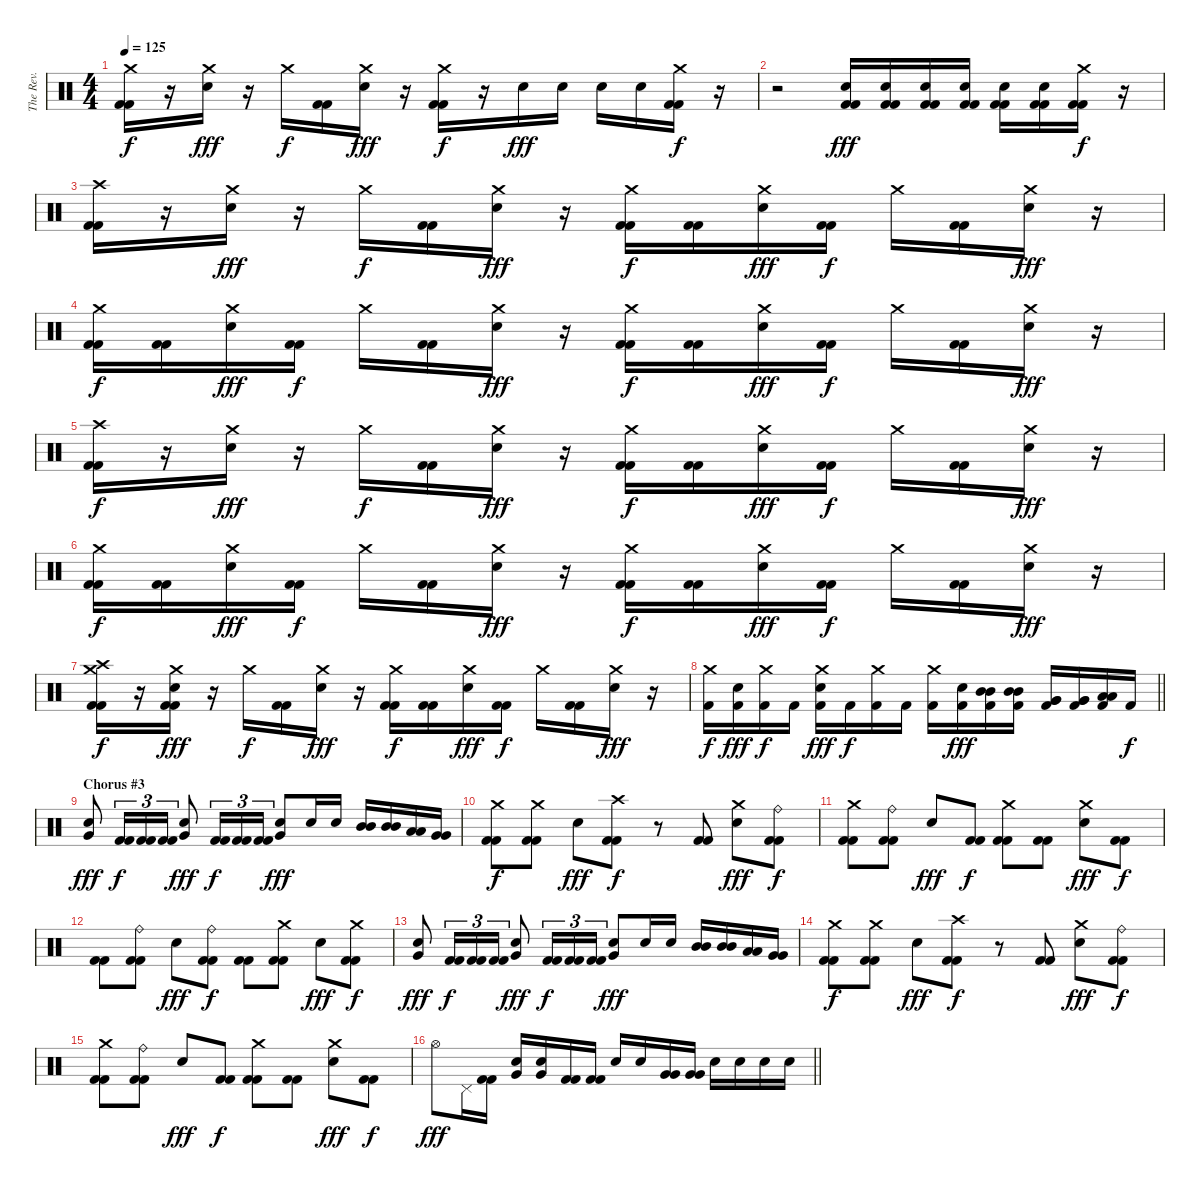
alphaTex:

\track ("The Rev." "The Rev.") {instrument percussion}
\staff {score}
\articulation defaults
\ts (4 4)
\tempo 125
\clef neutral
\ks c
("Crash medium (hit)" "Kick (hit) 2" "Kick (hit) 2").16{dy f} r.16 ("Crash medium (hit)" "Electric Snare (hit)").16{dy fff} r.16 "Crash medium (hit)".16{dy f} ("Kick (hit) 2" "Kick (hit) 2").16 ("Crash medium (hit)" "Electric Snare (hit)").16{dy fff} r.16 ("Crash medium (hit)" "Kick (hit) 2" "Kick (hit) 2").16{dy f} r.16 "Electric Snare (hit)".16{dy fff} "Electric Snare (hit)".16 "Electric Snare (hit)".16 "Electric Snare (hit)".16 ("Crash medium (hit)" "Kick (hit) 2" "Kick (hit) 2").16{dy f} r.16 |
r.2 ("Electric Snare (hit)" "Kick (hit) 2" "Kick (hit) 2").16{dy fff} ("Electric Snare (hit)" "Kick (hit) 2" "Kick (hit) 2").16 ("Electric Snare (hit)" "Kick (hit) 2" "Kick (hit) 2").16 ("Electric Snare (hit)" "Kick (hit) 2" "Kick (hit) 2").16 ("Electric Snare (hit)" "Kick (hit) 2" "Kick (hit) 2").16 ("Electric Snare (hit)" "Kick (hit) 2" "Kick (hit) 2").16 ("Crash medium (hit)" "Kick (hit) 2" "Kick (hit) 2").16{dy f} r.16 |
("Crash high (hit)" "Kick (hit) 2" "Kick (hit) 2").16 r.16 ("Crash medium (hit)" "Electric Snare (hit)").16{dy fff} r.16 "Crash medium (hit)".16{dy f} ("Kick (hit) 2" "Kick (hit) 2").16 ("Crash medium (hit)" "Electric Snare (hit)").16{dy fff} r.16 ("Crash medium (hit)" "Kick (hit) 2" "Kick (hit) 2").16{dy f} ("Kick (hit) 2" "Kick (hit) 2").16 ("Crash medium (hit)" "Electric Snare (hit)").16{dy fff} ("Kick (hit) 2" "Kick (hit) 2").16{dy f} "Crash medium (hit)".16 ("Kick (hit) 2" "Kick (hit) 2").16 ("Crash medium (hit)" "Electric Snare (hit)").16{dy fff} r.16 |
("Crash medium (hit)" "Kick (hit) 2" "Kick (hit) 2").16{dy f} ("Kick (hit) 2" "Kick (hit) 2").16 ("Crash medium (hit)" "Electric Snare (hit)").16{dy fff} ("Kick (hit) 2" "Kick (hit) 2").16{dy f} "Crash medium (hit)".16 ("Kick (hit) 2" "Kick (hit) 2").16 ("Crash medium (hit)" "Electric Snare (hit)").16{dy fff} r.16 ("Crash medium (hit)" "Kick (hit) 2" "Kick (hit) 2").16{dy f} ("Kick (hit) 2" "Kick (hit) 2").16 ("Crash medium (hit)" "Electric Snare (hit)").16{dy fff} ("Kick (hit) 2" "Kick (hit) 2").16{dy f} "Crash medium (hit)".16 ("Kick (hit) 2" "Kick (hit) 2").16 ("Crash medium (hit)" "Electric Snare (hit)").16{dy fff} r.16 |
("Crash high (hit)" "Kick (hit) 2" "Kick (hit) 2").16{dy f} r.16 ("Crash medium (hit)" "Electric Snare (hit)").16{dy fff} r.16 "Crash medium (hit)".16{dy f} ("Kick (hit) 2" "Kick (hit) 2").16 ("Crash medium (hit)" "Electric Snare (hit)").16{dy fff} r.16 ("Crash medium (hit)" "Kick (hit) 2" "Kick (hit) 2").16{dy f} ("Kick (hit) 2" "Kick (hit) 2").16 ("Crash medium (hit)" "Electric Snare (hit)").16{dy fff} ("Kick (hit) 2" "Kick (hit) 2").16{dy f} "Crash medium (hit)".16 ("Kick (hit) 2" "Kick (hit) 2").16 ("Crash medium (hit)" "Electric Snare (hit)").16{dy fff} r.16 |
("Crash medium (hit)" "Kick (hit) 2" "Kick (hit) 2").16{dy f} ("Kick (hit) 2" "Kick (hit) 2").16 ("Crash medium (hit)" "Electric Snare (hit)").16{dy fff} ("Kick (hit) 2" "Kick (hit) 2").16{dy f} "Crash medium (hit)".16 ("Kick (hit) 2" "Kick (hit) 2").16 ("Crash medium (hit)" "Electric Snare (hit)").16{dy fff} r.16 ("Crash medium (hit)" "Kick (hit) 2" "Kick (hit) 2").16{dy f} ("Kick (hit) 2" "Kick (hit) 2").16 ("Crash medium (hit)" "Electric Snare (hit)").16{dy fff} ("Kick (hit) 2" "Kick (hit) 2").16{dy f} "Crash medium (hit)".16 ("Kick (hit) 2" "Kick (hit) 2").16 ("Crash medium (hit)" "Electric Snare (hit)").16{dy fff} r.16 |
("Crash high (hit)" "Crash medium (hit)" "Kick (hit) 2" "Kick (hit) 2").16{dy f} r.16 ("Crash medium (hit)" "Electric Snare (hit)" "Kick (hit) 2" "Kick (hit) 2").16{dy fff} r.16 "Crash medium (hit)".16{dy f} ("Kick (hit) 2" "Kick (hit) 2").16 ("Crash medium (hit)" "Electric Snare (hit)").16{dy fff} r.16 ("Crash medium (hit)" "Kick (hit) 2" "Kick (hit) 2").16{dy f} ("Kick (hit) 2" "Kick (hit) 2").16 ("Crash medium (hit)" "Electric Snare (hit)").16{dy fff} ("Kick (hit) 2" "Kick (hit) 2").16{dy f} "Crash medium (hit)".16 ("Kick (hit) 2" "Kick (hit) 2").16 ("Crash medium (hit)" "Electric Snare (hit)").16{dy fff} r.16 |
\barLineRight lightlight
("Crash medium (hit)" "Kick (hit) 2").16{dy f} ("Electric Snare (hit)" "Kick (hit) 2").16{dy fff} ("Crash medium (hit)" "Kick (hit) 2").16{dy f} "Kick (hit) 2".16 ("Crash medium (hit)" "Electric Snare (hit)" "Kick (hit) 2").16{dy fff} "Kick (hit) 2".16{dy f} ("Crash medium (hit)" "Kick (hit) 2").16 "Kick (hit) 2".16 ("Crash medium (hit)" "Kick (hit) 2").16 ("Electric Snare (hit)" "Kick (hit) 2").16{dy fff} ("Mid Tom (hit)" "Mid Tom (hit)" "Kick (hit) 2").16 ("Mid Tom (hit)" "Mid Tom (hit)" "Kick (hit) 2").16 ("Very Low Tom (hit)" "Very Low Tom (hit)" "Kick (hit) 2").16 ("Very Low Tom (hit)" "Very Low Tom (hit)" "Kick (hit) 2").16 ("Low Floor Tom (hit)" "Low Floor Tom (hit)" "Kick (hit) 2").16 "Kick (hit) 2".16{dy f} |
\section ("" "Chorus #3")
("Electric Snare (hit)" "Very Low Tom (hit)").8{dy fff} ("Kick (hit) 2" "Kick (hit) 2").16{tu (3 2) dy f} ("Kick (hit) 2" "Kick (hit) 2").16{tu (3 2)} ("Kick (hit) 2" "Kick (hit) 2").16{tu (3 2)} ("Electric Snare (hit)" "Very Low Tom (hit)").8{dy fff} ("Kick (hit) 2" "Kick (hit) 2").16{tu (3 2) dy f} ("Kick (hit) 2" "Kick (hit) 2").16{tu (3 2)} ("Kick (hit) 2" "Kick (hit) 2").16{tu (3 2)} ("Electric Snare (hit)" "Very Low Tom (hit)").8{dy fff} "Electric Snare (hit)".16 "Electric Snare (hit)".16 ("Mid Tom (hit)" "Mid Tom (hit)").16 ("Mid Tom (hit)" "Mid Tom (hit)").16 ("Low Tom (hit)" "Low Tom (hit)").16 ("Very Low Tom (hit)" "Very Low Tom (hit)").16 |
("Crash medium (hit)" "Kick (hit) 2" "Kick (hit) 2").8{dy f} ("Crash medium (hit)" "Kick (hit) 2" "Kick (hit) 2").8 "Electric Snare (hit)".8{dy fff} ("Crash high (hit)" "Kick (hit) 2" "Kick (hit) 2").8{dy f} r.8 ("Kick (hit) 2" "Kick (hit) 2").8 ("Crash medium (hit)" "Electric Snare (hit)").8{dy fff} ("Ride (bell)" "Kick (hit) 2" "Kick (hit) 2").8{dy f} |
("Crash medium (hit)" "Kick (hit) 2" "Kick (hit) 2").8 ("Ride (bell)" "Kick (hit) 2" "Kick (hit) 2").8 "Electric Snare (hit)".8{dy fff} ("Kick (hit) 2" "Kick (hit) 2").8{dy f} ("Crash medium (hit)" "Kick (hit) 2" "Kick (hit) 2").8 ("Kick (hit) 2" "Kick (hit) 2").8 ("Crash medium (hit)" "Electric Snare (hit)").8{dy fff} ("Kick (hit) 2" "Kick (hit) 2").8{dy f} |
("Kick (hit) 2" "Kick (hit) 2").8 ("Ride (bell)" "Kick (hit) 2" "Kick (hit) 2").8 "Electric Snare (hit)".8{dy fff} ("Ride (bell)" "Kick (hit) 2" "Kick (hit) 2").8{dy f} ("Kick (hit) 2" "Kick (hit) 2").8 ("Crash medium (hit)" "Kick (hit) 2" "Kick (hit) 2").8 "Electric Snare (hit)".8{dy fff} ("Crash medium (hit)" "Kick (hit) 2" "Kick (hit) 2").8{dy f} |
("Electric Snare (hit)" "Very Low Tom (hit)").8{dy fff} ("Kick (hit) 2" "Kick (hit) 2").16{tu (3 2) dy f} ("Kick (hit) 2" "Kick (hit) 2").16{tu (3 2)} ("Kick (hit) 2" "Kick (hit) 2").16{tu (3 2)} ("Electric Snare (hit)" "Very Low Tom (hit)").8{dy fff} ("Kick (hit) 2" "Kick (hit) 2").16{tu (3 2) dy f} ("Kick (hit) 2" "Kick (hit) 2").16{tu (3 2)} ("Kick (hit) 2" "Kick (hit) 2").16{tu (3 2)} ("Electric Snare (hit)" "Very Low Tom (hit)").8{dy fff} "Electric Snare (hit)".16 "Electric Snare (hit)".16 ("Mid Tom (hit)" "Mid Tom (hit)").16 ("Mid Tom (hit)" "Mid Tom (hit)").16 ("Low Tom (hit)" "Low Tom (hit)").16 ("Very Low Tom (hit)" "Very Low Tom (hit)").16 |
("Crash medium (hit)" "Kick (hit) 2" "Kick (hit) 2").8{dy f} ("Crash medium (hit)" "Kick (hit) 2" "Kick (hit) 2").8 "Electric Snare (hit)".8{dy fff} ("Crash high (hit)" "Kick (hit) 2" "Kick (hit) 2").8{dy f} r.8 ("Kick (hit) 2" "Kick (hit) 2").8 ("Crash medium (hit)" "Electric Snare (hit)").8{dy fff} ("Ride (bell)" "Kick (hit) 2" "Kick (hit) 2").8{dy f} |
("Crash medium (hit)" "Kick (hit) 2" "Kick (hit) 2").8 ("Ride (bell)" "Kick (hit) 2" "Kick (hit) 2").8 "Electric Snare (hit)".8{dy fff} ("Kick (hit) 2" "Kick (hit) 2").8{dy f} ("Crash medium (hit)" "Kick (hit) 2" "Kick (hit) 2").8 ("Kick (hit) 2" "Kick (hit) 2").8 ("Crash medium (hit)" "Electric Snare (hit)").8{dy fff} ("Kick (hit) 2" "Kick (hit) 2").8{dy f} |
\barLineRight lightlight "Hi-Hat (open)".8{dy fff} "Pedal Hi-Hat (hit)".16
("Kick (hit) 2" "Kick (hit) 2").16 ("Very Low Tom (hit)" "Electric Snare (hit)").16 ("Very Low Tom (hit)" "Electric Snare (hit)").16 ("Kick (hit) 2" "Kick (hit) 2").16 ("Kick (hit) 2" "Kick (hit) 2").16 "Electric Snare (hit)".16 "Electric Snare (hit)".16 ("Very Low Tom (hit)" "Very Low Tom (hit)").16 ("Very Low Tom (hit)" "Very Low Tom (hit)").16 "Electric Snare (hit)".16 "Electric Snare (hit)".16 "Electric Snare (hit)".16 "Electric Snare (hit)".16
